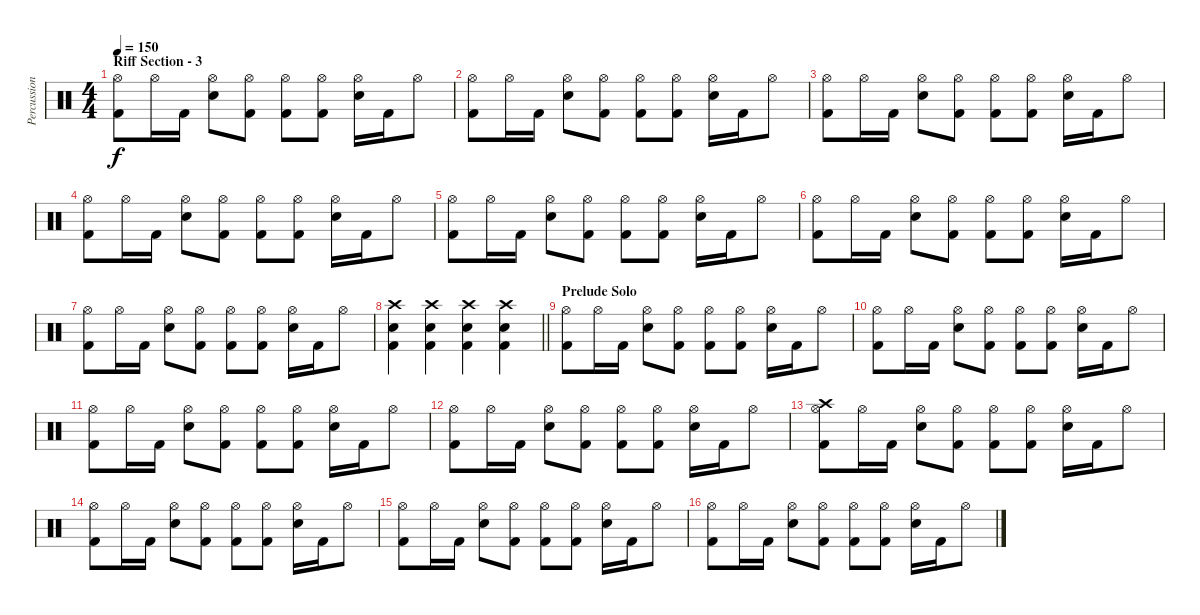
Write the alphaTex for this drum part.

\track ("Percussion" "Percussion") {instrument percussion}
\staff {score}
\articulation defaults
\ts (4 4)
\section ("" "Riff Section - 3")
\tempo 150
\clef neutral
\ks c
("Hi-Hat (open)" "Kick (hit) 2").8{dy f} "Hi-Hat (open)".16 "Kick (hit) 2".16 ("Hi-Hat (open)" "Snare (hit) 2").8 ("Hi-Hat (open)" "Kick (hit) 2").8 ("Hi-Hat (open)" "Kick (hit) 2").8 ("Hi-Hat (open)" "Kick (hit) 2").8 ("Hi-Hat (open)" "Snare (hit) 2").16 "Kick (hit) 2".16 "Hi-Hat (open)".8 |
("Hi-Hat (open)" "Kick (hit) 2").8 "Hi-Hat (open)".16 "Kick (hit) 2".16 ("Hi-Hat (open)" "Snare (hit) 2").8 ("Hi-Hat (open)" "Kick (hit) 2").8 ("Hi-Hat (open)" "Kick (hit) 2").8 ("Hi-Hat (open)" "Kick (hit) 2").8 ("Hi-Hat (open)" "Snare (hit) 2").16 "Kick (hit) 2".16 "Hi-Hat (open)".8 |
("Hi-Hat (open)" "Kick (hit) 2").8 "Hi-Hat (open)".16 "Kick (hit) 2".16 ("Hi-Hat (open)" "Snare (hit) 2").8 ("Hi-Hat (open)" "Kick (hit) 2").8 ("Hi-Hat (open)" "Kick (hit) 2").8 ("Hi-Hat (open)" "Kick (hit) 2").8 ("Hi-Hat (open)" "Snare (hit) 2").16 "Kick (hit) 2".16 "Hi-Hat (open)".8 |
("Hi-Hat (open)" "Kick (hit) 2").8 "Hi-Hat (open)".16 "Kick (hit) 2".16 ("Hi-Hat (open)" "Snare (hit) 2").8 ("Hi-Hat (open)" "Kick (hit) 2").8 ("Hi-Hat (open)" "Kick (hit) 2").8 ("Hi-Hat (open)" "Kick (hit) 2").8 ("Hi-Hat (open)" "Snare (hit) 2").16 "Kick (hit) 2".16 "Hi-Hat (open)".8 |
("Hi-Hat (open)" "Kick (hit) 2").8 "Hi-Hat (open)".16 "Kick (hit) 2".16 ("Hi-Hat (open)" "Snare (hit) 2").8 ("Hi-Hat (open)" "Kick (hit) 2").8 ("Hi-Hat (open)" "Kick (hit) 2").8 ("Hi-Hat (open)" "Kick (hit) 2").8 ("Hi-Hat (open)" "Snare (hit) 2").16 "Kick (hit) 2".16 "Hi-Hat (open)".8 |
("Hi-Hat (open)" "Kick (hit) 2").8 "Hi-Hat (open)".16 "Kick (hit) 2".16 ("Hi-Hat (open)" "Snare (hit) 2").8 ("Hi-Hat (open)" "Kick (hit) 2").8 ("Hi-Hat (open)" "Kick (hit) 2").8 ("Hi-Hat (open)" "Kick (hit) 2").8 ("Hi-Hat (open)" "Snare (hit) 2").16 "Kick (hit) 2".16 "Hi-Hat (open)".8 |
("Hi-Hat (open)" "Kick (hit) 2").8 "Hi-Hat (open)".16 "Kick (hit) 2".16 ("Hi-Hat (open)" "Snare (hit) 2").8 ("Hi-Hat (open)" "Kick (hit) 2").8 ("Hi-Hat (open)" "Kick (hit) 2").8 ("Hi-Hat (open)" "Kick (hit) 2").8 ("Hi-Hat (open)" "Snare (hit) 2").16 "Kick (hit) 2".16 "Hi-Hat (open)".8 |
\barLineRight lightlight
("Crash high (hit)" "Snare (hit) 2" "Kick (hit) 2").4 ("Crash high (hit)" "Snare (hit) 2" "Kick (hit) 2").4 ("Crash high (hit)" "Snare (hit) 2" "Kick (hit) 2").4 ("Crash high (hit)" "Snare (hit) 2" "Kick (hit) 2").4 |
\section ("" "Prelude Solo")
("Hi-Hat (open)" "Kick (hit) 2").8 "Hi-Hat (open)".16 "Kick (hit) 2".16 ("Hi-Hat (open)" "Snare (hit) 2").8 ("Hi-Hat (open)" "Kick (hit) 2").8 ("Hi-Hat (open)" "Kick (hit) 2").8 ("Hi-Hat (open)" "Kick (hit) 2").8 ("Hi-Hat (open)" "Snare (hit) 2").16 "Kick (hit) 2".16 "Hi-Hat (open)".8 |
("Hi-Hat (open)" "Kick (hit) 2").8 "Hi-Hat (open)".16 "Kick (hit) 2".16 ("Hi-Hat (open)" "Snare (hit) 2").8 ("Hi-Hat (open)" "Kick (hit) 2").8 ("Hi-Hat (open)" "Kick (hit) 2").8 ("Hi-Hat (open)" "Kick (hit) 2").8 ("Hi-Hat (open)" "Snare (hit) 2").16 "Kick (hit) 2".16 "Hi-Hat (open)".8 |
("Hi-Hat (open)" "Kick (hit) 2").8 "Hi-Hat (open)".16 "Kick (hit) 2".16 ("Hi-Hat (open)" "Snare (hit) 2").8 ("Hi-Hat (open)" "Kick (hit) 2").8 ("Hi-Hat (open)" "Kick (hit) 2").8 ("Hi-Hat (open)" "Kick (hit) 2").8 ("Hi-Hat (open)" "Snare (hit) 2").16 "Kick (hit) 2".16 "Hi-Hat (open)".8 |
("Hi-Hat (open)" "Kick (hit) 2").8 "Hi-Hat (open)".16 "Kick (hit) 2".16 ("Hi-Hat (open)" "Snare (hit) 2").8 ("Hi-Hat (open)" "Kick (hit) 2").8 ("Hi-Hat (open)" "Kick (hit) 2").8 ("Hi-Hat (open)" "Kick (hit) 2").8 ("Hi-Hat (open)" "Snare (hit) 2").16 "Kick (hit) 2".16 "Hi-Hat (open)".8 |
("Crash high (hit)" "Hi-Hat (open)" "Kick (hit) 2").8 "Hi-Hat (open)".16 "Kick (hit) 2".16 ("Hi-Hat (open)" "Snare (hit) 2").8 ("Hi-Hat (open)" "Kick (hit) 2").8 ("Hi-Hat (open)" "Kick (hit) 2").8 ("Hi-Hat (open)" "Kick (hit) 2").8 ("Hi-Hat (open)" "Snare (hit) 2").16 "Kick (hit) 2".16 "Hi-Hat (open)".8 |
("Hi-Hat (open)" "Kick (hit) 2").8 "Hi-Hat (open)".16 "Kick (hit) 2".16 ("Hi-Hat (open)" "Snare (hit) 2").8 ("Hi-Hat (open)" "Kick (hit) 2").8 ("Hi-Hat (open)" "Kick (hit) 2").8 ("Hi-Hat (open)" "Kick (hit) 2").8 ("Hi-Hat (open)" "Snare (hit) 2").16 "Kick (hit) 2".16 "Hi-Hat (open)".8 |
("Hi-Hat (open)" "Kick (hit) 2").8 "Hi-Hat (open)".16 "Kick (hit) 2".16 ("Hi-Hat (open)" "Snare (hit) 2").8 ("Hi-Hat (open)" "Kick (hit) 2").8 ("Hi-Hat (open)" "Kick (hit) 2").8 ("Hi-Hat (open)" "Kick (hit) 2").8 ("Hi-Hat (open)" "Snare (hit) 2").16 "Kick (hit) 2".16 "Hi-Hat (open)".8 |
("Hi-Hat (open)" "Kick (hit) 2").8 "Hi-Hat (open)".16 "Kick (hit) 2".16 ("Hi-Hat (open)" "Snare (hit) 2").8 ("Hi-Hat (open)" "Kick (hit) 2").8 ("Hi-Hat (open)" "Kick (hit) 2").8 ("Hi-Hat (open)" "Kick (hit) 2").8 ("Hi-Hat (open)" "Snare (hit) 2").16 "Kick (hit) 2".16 "Hi-Hat (open)".8
